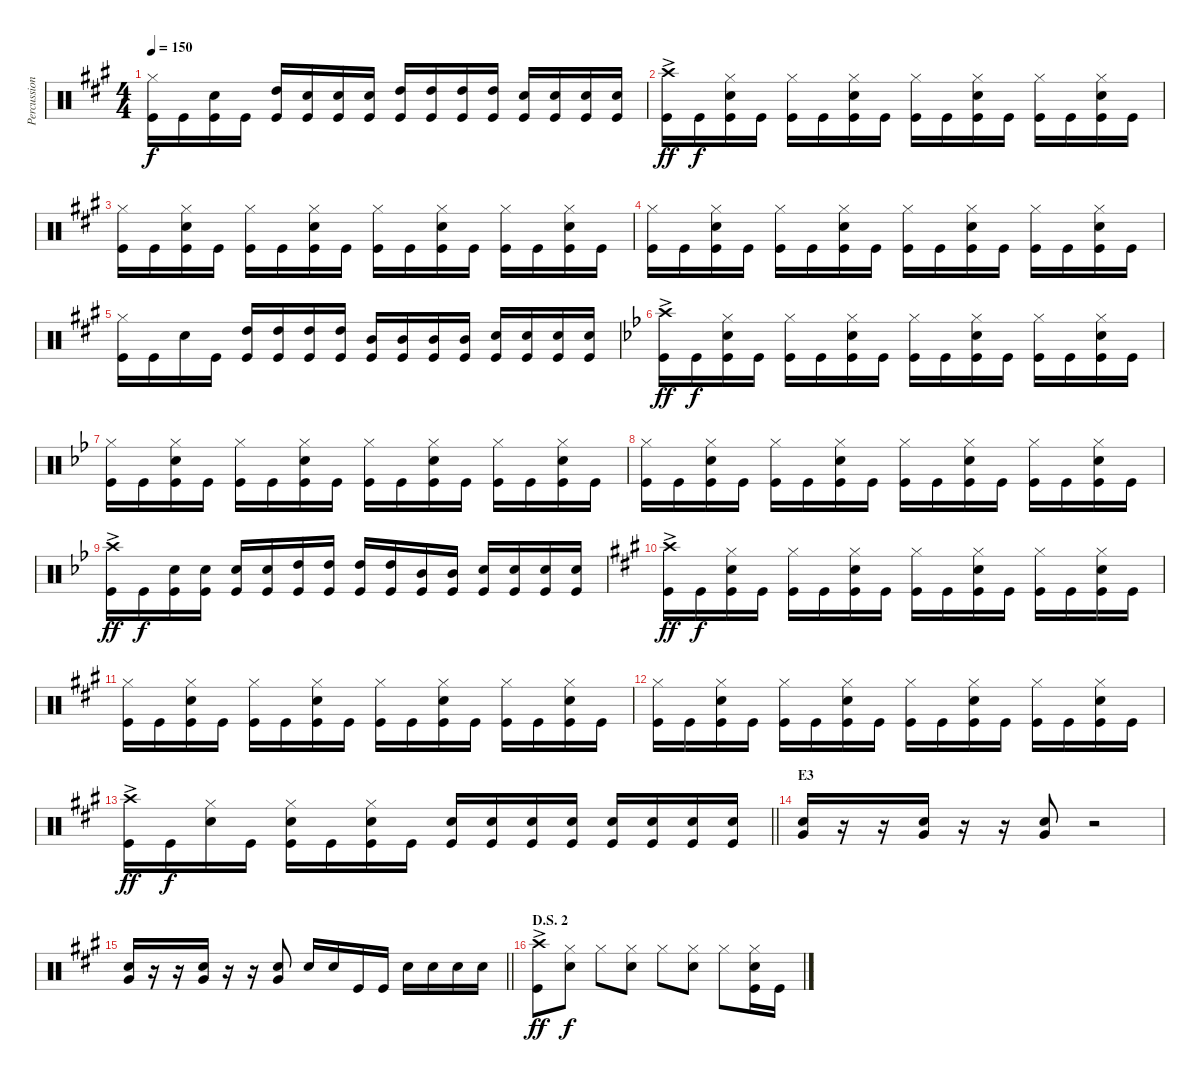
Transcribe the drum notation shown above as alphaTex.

\track ("Percussion" "Percussion") {instrument percussion}
\staff {score}
\articulation defaults
\ts (4 4)
\tempo 150
\clef neutral
\ks a
("Hi-Hat (closed)" "Kick (hit)").16{dy f} "Kick (hit)".16 ("Snare (hit) 2" "Kick (hit)").16 "Kick (hit)".16 ("Kick (hit)" "High Tom (hit)").16 ("Kick (hit)" "Snare (hit) 2").16 ("Kick (hit)" "Snare (hit) 2").16 ("Kick (hit)" "Snare (hit) 2").16 ("Kick (hit)" "High Tom (hit)").16 ("Kick (hit)" "High Tom (hit)").16 ("Kick (hit)" "High Tom (hit)").16 ("Kick (hit)" "High Tom (hit)").16 ("Kick (hit)" "Snare (hit) 2").16 ("Kick (hit)" "Snare (hit) 2").16 ("Kick (hit)" "Snare (hit) 2").16 ("Kick (hit)" "Snare (hit) 2").16 |
("Crash high (hit)"{ac} "Kick (hit)").16{dy ff} "Kick (hit)".16{dy f} ("Hi-Hat (closed)" "Kick (hit)" "Snare (hit) 2").16 "Kick (hit)".16 ("Hi-Hat (closed)" "Kick (hit)").16 "Kick (hit)".16 ("Hi-Hat (closed)" "Kick (hit)" "Snare (hit) 2").16 "Kick (hit)".16 ("Kick (hit)" "Hi-Hat (closed)").16 "Kick (hit)".16 ("Kick (hit)" "Hi-Hat (closed)" "Snare (hit) 2").16 "Kick (hit)".16 ("Kick (hit)" "Hi-Hat (closed)").16 "Kick (hit)".16 ("Kick (hit)" "Hi-Hat (closed)" "Snare (hit) 2").16 "Kick (hit)".16 |
("Hi-Hat (closed)" "Kick (hit)").16 "Kick (hit)".16 ("Hi-Hat (closed)" "Kick (hit)" "Snare (hit) 2").16 "Kick (hit)".16 ("Hi-Hat (closed)" "Kick (hit)").16 "Kick (hit)".16 ("Hi-Hat (closed)" "Kick (hit)" "Snare (hit) 2").16 "Kick (hit)".16 ("Kick (hit)" "Hi-Hat (closed)").16 "Kick (hit)".16 ("Kick (hit)" "Hi-Hat (closed)" "Snare (hit) 2").16 "Kick (hit)".16 ("Kick (hit)" "Hi-Hat (closed)").16 "Kick (hit)".16 ("Kick (hit)" "Hi-Hat (closed)" "Snare (hit) 2").16 "Kick (hit)".16 |
("Hi-Hat (closed)" "Kick (hit)").16 "Kick (hit)".16 ("Hi-Hat (closed)" "Kick (hit)" "Snare (hit) 2").16 "Kick (hit)".16 ("Hi-Hat (closed)" "Kick (hit)").16 "Kick (hit)".16 ("Hi-Hat (closed)" "Kick (hit)" "Snare (hit) 2").16 "Kick (hit)".16 ("Kick (hit)" "Hi-Hat (closed)").16 "Kick (hit)".16 ("Kick (hit)" "Hi-Hat (closed)" "Snare (hit) 2").16 "Kick (hit)".16 ("Kick (hit)" "Hi-Hat (closed)").16 "Kick (hit)".16 ("Kick (hit)" "Hi-Hat (closed)" "Snare (hit) 2").16 "Kick (hit)".16 |
("Kick (hit)" "Hi-Hat (closed)").16 "Kick (hit)".16 "Snare (hit) 2".16 "Kick (hit)".16 ("Kick (hit)" "High Tom (hit)").16 ("Kick (hit)" "High Tom (hit)").16 ("Kick (hit)" "High Tom (hit)").16 ("Kick (hit)" "High Tom (hit)").16 ("Kick (hit)" "Mid Tom (hit)").16 ("Kick (hit)" "Mid Tom (hit)").16 ("Kick (hit)" "Mid Tom (hit)").16 ("Kick (hit)" "Mid Tom (hit)").16 ("Kick (hit)" "Snare (hit) 2").16 ("Kick (hit)" "Snare (hit) 2").16 ("Kick (hit)" "Snare (hit) 2").16 ("Kick (hit)" "Snare (hit) 2").16 |
\ks bb
("Crash high (hit)"{ac} "Kick (hit)").16{dy ff} "Kick (hit)".16{dy f} ("Hi-Hat (closed)" "Kick (hit)" "Snare (hit) 2").16 "Kick (hit)".16 ("Hi-Hat (closed)" "Kick (hit)").16 "Kick (hit)".16 ("Hi-Hat (closed)" "Kick (hit)" "Snare (hit) 2").16 "Kick (hit)".16 ("Kick (hit)" "Hi-Hat (closed)").16 "Kick (hit)".16 ("Kick (hit)" "Hi-Hat (closed)" "Snare (hit) 2").16 "Kick (hit)".16 ("Kick (hit)" "Hi-Hat (closed)").16 "Kick (hit)".16 ("Kick (hit)" "Hi-Hat (closed)" "Snare (hit) 2").16 "Kick (hit)".16 |
("Hi-Hat (closed)" "Kick (hit)").16 "Kick (hit)".16 ("Hi-Hat (closed)" "Kick (hit)" "Snare (hit) 2").16 "Kick (hit)".16 ("Hi-Hat (closed)" "Kick (hit)").16 "Kick (hit)".16 ("Hi-Hat (closed)" "Kick (hit)" "Snare (hit) 2").16 "Kick (hit)".16 ("Kick (hit)" "Hi-Hat (closed)").16 "Kick (hit)".16 ("Kick (hit)" "Hi-Hat (closed)" "Snare (hit) 2").16 "Kick (hit)".16 ("Kick (hit)" "Hi-Hat (closed)").16 "Kick (hit)".16 ("Kick (hit)" "Hi-Hat (closed)" "Snare (hit) 2").16 "Kick (hit)".16 |
("Hi-Hat (closed)" "Kick (hit)").16 "Kick (hit)".16 ("Hi-Hat (closed)" "Kick (hit)" "Snare (hit) 2").16 "Kick (hit)".16 ("Hi-Hat (closed)" "Kick (hit)").16 "Kick (hit)".16 ("Hi-Hat (closed)" "Kick (hit)" "Snare (hit) 2").16 "Kick (hit)".16 ("Kick (hit)" "Hi-Hat (closed)").16 "Kick (hit)".16 ("Kick (hit)" "Hi-Hat (closed)" "Snare (hit) 2").16 "Kick (hit)".16 ("Kick (hit)" "Hi-Hat (closed)").16 "Kick (hit)".16 ("Kick (hit)" "Hi-Hat (closed)" "Snare (hit) 2").16 "Kick (hit)".16 |
("Kick (hit)" "Crash high (hit)"{ac}).16{dy ff} "Kick (hit)".16{dy f} ("Snare (hit) 2" "Kick (hit)").16 ("Kick (hit)" "Snare (hit) 2").16 ("Kick (hit)" "Snare (hit) 2").16 ("Kick (hit)" "Snare (hit) 2").16 ("Kick (hit)" "High Tom (hit)").16 ("Kick (hit)" "High Tom (hit)").16 ("Kick (hit)" "High Tom (hit)").16 ("Kick (hit)" "High Tom (hit)").16 ("Kick (hit)" "Mid Tom (hit)").16 ("Kick (hit)" "Mid Tom (hit)").16 ("Kick (hit)" "Snare (hit) 2").16 ("Kick (hit)" "Snare (hit) 2").16 ("Kick (hit)" "Snare (hit) 2").16 ("Kick (hit)" "Snare (hit) 2").16 |
\ks a
("Crash high (hit)"{ac} "Kick (hit)").16{dy ff} "Kick (hit)".16{dy f} ("Hi-Hat (closed)" "Kick (hit)" "Snare (hit) 2").16 "Kick (hit)".16 ("Hi-Hat (closed)" "Kick (hit)").16 "Kick (hit)".16 ("Hi-Hat (closed)" "Kick (hit)" "Snare (hit) 2").16 "Kick (hit)".16 ("Kick (hit)" "Hi-Hat (closed)").16 "Kick (hit)".16 ("Kick (hit)" "Hi-Hat (closed)" "Snare (hit) 2").16 "Kick (hit)".16 ("Kick (hit)" "Hi-Hat (closed)").16 "Kick (hit)".16 ("Kick (hit)" "Hi-Hat (closed)" "Snare (hit) 2").16 "Kick (hit)".16 |
("Hi-Hat (closed)" "Kick (hit)").16 "Kick (hit)".16 ("Hi-Hat (closed)" "Kick (hit)" "Snare (hit) 2").16 "Kick (hit)".16 ("Hi-Hat (closed)" "Kick (hit)").16 "Kick (hit)".16 ("Hi-Hat (closed)" "Kick (hit)" "Snare (hit) 2").16 "Kick (hit)".16 ("Kick (hit)" "Hi-Hat (closed)").16 "Kick (hit)".16 ("Kick (hit)" "Hi-Hat (closed)" "Snare (hit) 2").16 "Kick (hit)".16 ("Kick (hit)" "Hi-Hat (closed)").16 "Kick (hit)".16 ("Kick (hit)" "Hi-Hat (closed)" "Snare (hit) 2").16 "Kick (hit)".16 |
("Hi-Hat (closed)" "Kick (hit)").16 "Kick (hit)".16 ("Hi-Hat (closed)" "Kick (hit)" "Snare (hit) 2").16 "Kick (hit)".16 ("Hi-Hat (closed)" "Kick (hit)").16 "Kick (hit)".16 ("Hi-Hat (closed)" "Kick (hit)" "Snare (hit) 2").16 "Kick (hit)".16 ("Kick (hit)" "Hi-Hat (closed)").16 "Kick (hit)".16 ("Kick (hit)" "Hi-Hat (closed)" "Snare (hit) 2").16 "Kick (hit)".16 ("Kick (hit)" "Hi-Hat (closed)").16 "Kick (hit)".16 ("Kick (hit)" "Hi-Hat (closed)" "Snare (hit) 2").16 "Kick (hit)".16 |
\barLineRight lightlight
("Crash high (hit)"{ac} "Kick (hit)").16{dy ff} "Kick (hit)".16{dy f} ("Hi-Hat (closed)" "Snare (hit) 2").16 "Kick (hit)".16 ("Hi-Hat (closed)" "Snare (hit) 2" "Kick (hit)").16 "Kick (hit)".16 ("Hi-Hat (closed)" "Snare (hit) 2" "Kick (hit)").16 "Kick (hit)".16 ("Snare (hit) 2" "Kick (hit)").16 ("Snare (hit) 2" "Kick (hit)").16 ("Snare (hit) 2" "Kick (hit)").16 ("Snare (hit) 2" "Kick (hit)").16 ("Snare (hit) 2" "Kick (hit)").16 ("Snare (hit) 2" "Kick (hit)").16 ("Snare (hit) 2" "Kick (hit)").16 ("Snare (hit) 2" "Kick (hit)").16 |
\section ("" "E3")
("Snare (hit) 2" "Very Low Tom (hit)").16 r.16 r.16 ("Snare (hit) 2" "Very Low Tom (hit)").16 r.16 r.16 ("Snare (hit) 2" "Very Low Tom (hit)").8 r.2 |
\barLineRight lightlight
("Snare (hit) 2" "Very Low Tom (hit)").16 r.16 r.16 ("Snare (hit) 2" "Very Low Tom (hit)").16 r.16 r.16 ("Snare (hit) 2" "Very Low Tom (hit)").8 "Snare (hit) 2".16 "Snare (hit) 2".16 "Kick (hit)".16 "Kick (hit)".16 "Snare (hit) 2".16 "Snare (hit) 2".16 "Snare (hit) 2".16 "Snare (hit) 2".16 |
\section ("" "D.S. 2")
("Crash high (hit)"{ac} "Kick (hit)").8{dy ff volume 13} ("Hi-Hat (closed)" "Snare (hit) 2").8{dy f} "Hi-Hat (closed)".8 ("Hi-Hat (closed)" "Snare (hit) 2").8 "Hi-Hat (closed)".8 ("Hi-Hat (closed)" "Snare (hit) 2").8 "Hi-Hat (closed)".8 ("Hi-Hat (closed)" "Snare (hit) 2" "Kick (hit)").16 "Kick (hit)".16
